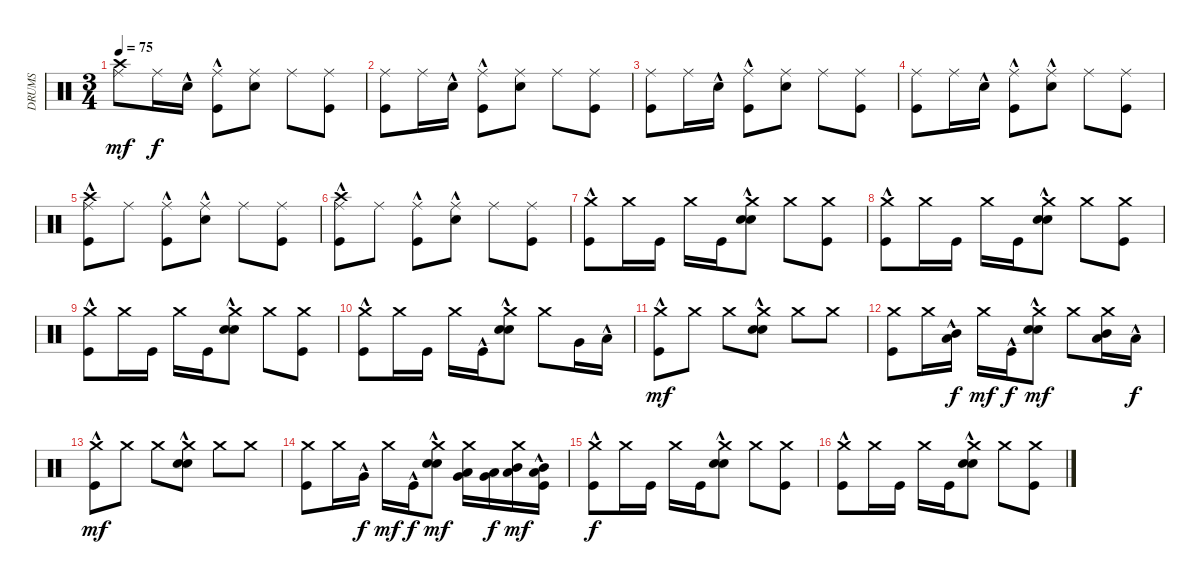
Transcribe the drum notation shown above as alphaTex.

\track ("DRUMS" "DRUMS") {instrument percussion}
\staff {score}
\articulation defaults
\ts (3 4)
\tempo 75
\clef neutral
\ks c
("Ride (middle)" "Crash high (hit)").8{dy mf} "Ride (middle)".16{dy f} "Electric Snare (hit)"{hac}.16 ("Kick (hit)"{hac} "Ride (middle)").8 ("Electric Snare (hit)" "Ride (middle)").8 "Ride (middle)".8 ("Kick (hit)" "Ride (middle)").8 |
("Kick (hit)" "Ride (middle)").8 "Ride (middle)".16 "Electric Snare (hit)"{hac}.16 ("Kick (hit)"{hac} "Ride (middle)").8 ("Electric Snare (hit)" "Ride (middle)").8 "Ride (middle)".8 ("Kick (hit)" "Ride (middle)").8 |
("Kick (hit)" "Ride (middle)").8 "Ride (middle)".16 "Electric Snare (hit)"{hac}.16 ("Kick (hit)"{hac} "Ride (middle)").8 ("Electric Snare (hit)" "Ride (middle)").8 "Ride (middle)".8 ("Kick (hit)" "Ride (middle)").8 |
("Kick (hit)" "Ride (middle)").8 "Ride (middle)".16 "Electric Snare (hit)"{hac}.16 ("Kick (hit)"{hac} "Ride (middle)").8 ("Electric Snare (hit)"{hac} "Ride (middle)").8 "Ride (middle)".8 ("Kick (hit)" "Ride (middle)").8 |
("Kick (hit)" "Ride (middle)" "Crash high (hit)"{hac}).8 "Ride (middle)".8 ("Kick (hit)"{hac} "Ride (middle)").8 ("Electric Snare (hit)"{hac} "Ride (middle)").8 "Ride (middle)".8 ("Kick (hit)" "Ride (middle)").8 |
("Kick (hit)" "Ride (middle)" "Crash high (hit)"{hac}).8 "Ride (middle)".8 ("Kick (hit)"{hac} "Ride (middle)").8 ("Electric Snare (hit)"{hac} "Ride (middle)").8 "Ride (middle)".8 ("Kick (hit)" "Ride (middle)").8 |
("Kick (hit)"{hac} "Crash medium (hit)").8 "Crash medium (hit)".16 "Kick (hit)".16 "Crash medium (hit)".16 "Kick (hit)".16 ("Snare (hit) 2"{hac} "Snare (hit) 2"{hac} "Crash medium (hit)").8 "Crash medium (hit)".8 ("Kick (hit)" "Crash medium (hit)").8 |
("Kick (hit)"{hac} "Crash medium (hit)").8 "Crash medium (hit)".16 "Kick (hit)".16 "Crash medium (hit)".16 "Kick (hit)".16 ("Snare (hit) 2"{hac} "Snare (hit) 2"{hac} "Crash medium (hit)").8 "Crash medium (hit)".8 ("Kick (hit)" "Crash medium (hit)").8 |
("Kick (hit)"{hac} "Crash medium (hit)").8 "Crash medium (hit)".16 "Kick (hit)".16 "Crash medium (hit)".16 "Kick (hit)".16 ("Snare (hit) 2"{hac} "Snare (hit) 2"{hac} "Crash medium (hit)").8 "Crash medium (hit)".8 ("Kick (hit)" "Crash medium (hit)").8 |
("Kick (hit)"{hac} "Crash medium (hit)").8 "Crash medium (hit)".16 "Kick (hit)".16 "Crash medium (hit)".16 "Kick (hit)"{hac}.16 ("Snare (hit) 2"{hac} "Snare (hit) 2"{hac} "Crash medium (hit)").8 "Crash medium (hit)".8 "Very Low Tom (hit)".16 "Low Floor Tom (hit)"{hac}.16 |
("Kick (hit)"{hac} "Crash medium (hit)").8{dy mf} "Crash medium (hit)".8 "Crash medium (hit)".8 ("Snare (hit) 2"{hac} "Snare (hit) 2"{hac} "Crash medium (hit)").8 "Crash medium (hit)".8 "Crash medium (hit)".8 |
("Kick (hit)" "Crash medium (hit)").8 "Crash medium (hit)".16 ("Low Floor Tom (hit)"{hac} "Mid Tom (hit)"{hac}).16{dy f} "Crash medium (hit)".16{dy mf} "Kick (hit)"{hac}.16{dy f} ("Snare (hit) 2"{hac} "Snare (hit) 2"{hac} "Crash medium (hit)").8{dy mf} "Crash medium (hit)".8 ("Low Floor Tom (hit)" "Mid Tom (hit)" "Crash medium (hit)").16 "Low Floor Tom (hit)"{hac}.16{dy f} |
("Kick (hit)"{hac} "Crash medium (hit)").8{dy mf} "Crash medium (hit)".8 "Crash medium (hit)".8 ("Snare (hit) 2"{hac} "Snare (hit) 2"{hac} "Crash medium (hit)").8 "Crash medium (hit)".8 "Crash medium (hit)".8 |
("Kick (hit)" "Crash medium (hit)").8 "Crash medium (hit)".16 "Very Low Tom (hit)"{hac}.16{dy f} "Crash medium (hit)".16{dy mf} "Kick (hit)"{hac}.16{dy f} ("Snare (hit) 2"{hac} "Snare (hit) 2"{hac} "Crash medium (hit)").8{dy mf} ("Very Low Tom (hit)" "Low Tom (hit)" "Crash medium (hit)").16 ("Very Low Tom (hit)" "Low Tom (hit)").16{dy f} ("Low Floor Tom (hit)" "Mid Tom (hit)" "Crash medium (hit)").16{dy mf} ("Kick (hit)" "Low Floor Tom (hit)"{hac} "Mid Tom (hit)").16 |
("Kick (hit)"{hac} "Crash medium (hit)").8{dy f} "Crash medium (hit)".16 "Kick (hit)".16 "Crash medium (hit)".16 "Kick (hit)".16 ("Snare (hit) 2"{hac} "Snare (hit) 2"{hac} "Crash medium (hit)").8 "Crash medium (hit)".8 ("Kick (hit)" "Crash medium (hit)").8 |
("Kick (hit)"{hac} "Crash medium (hit)").8 "Crash medium (hit)".16 "Kick (hit)".16 "Crash medium (hit)".16 "Kick (hit)".16 ("Snare (hit) 2"{hac} "Snare (hit) 2"{hac} "Crash medium (hit)").8 "Crash medium (hit)".8 ("Kick (hit)" "Crash medium (hit)").8
